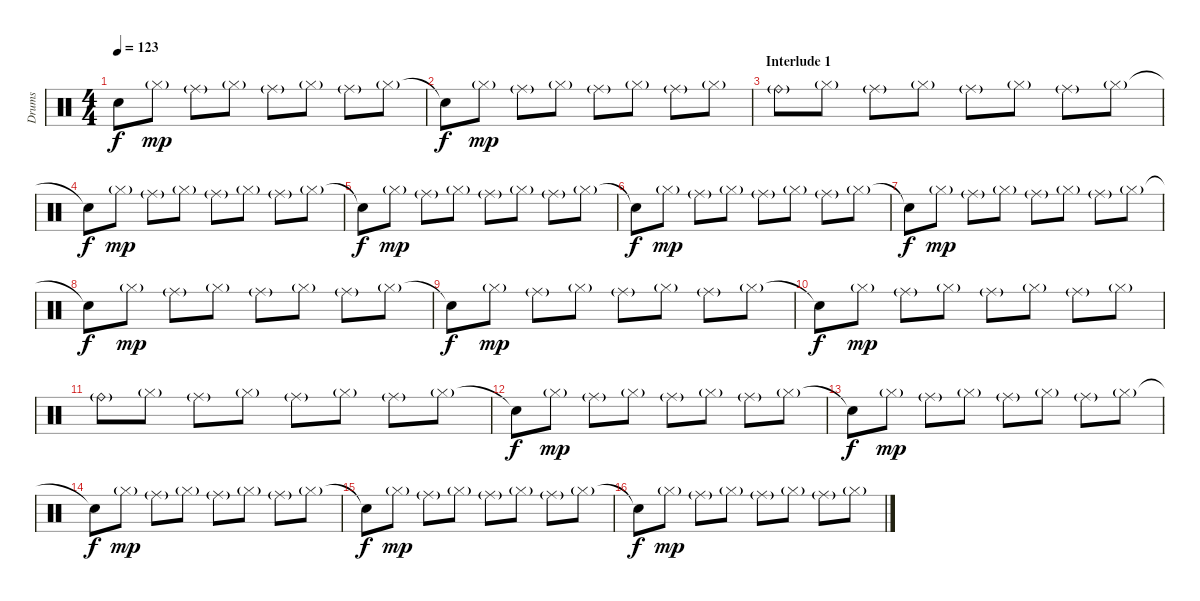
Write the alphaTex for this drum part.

\track ("Drums" "Drums") {instrument percussion}
\staff {score}
\articulation defaults
\ts (4 4)
\tempo 123
\clef neutral
\ks c "Snare (hit)"{t}.8{dy f} "Hi-Hat (closed)"{g}.8{dy mp} "Ride (middle)"{g}.8 "Hi-Hat (closed)"{g}.8 "Ride (middle)"{g}.8 "Hi-Hat (closed)"{g}.8 "Ride (middle)"{g}.8 "Hi-Hat (closed)"{g}.8
|
"Snare (hit)"{t}.8{dy f} "Hi-Hat (closed)"{g}.8{dy mp} "Ride (middle)"{g}.8 "Hi-Hat (closed)"{g}.8 "Ride (middle)"{g}.8 "Hi-Hat (closed)"{g}.8 "Ride (middle)"{g}.8 "Hi-Hat (closed)"{g}.8 |
\section ("" "Interlude 1")
"Ride (bell)"{g}.8 "Hi-Hat (closed)"{g}.8 "Ride (middle)"{g}.8 "Hi-Hat (closed)"{g}.8 "Ride (middle)"{g}.8 "Hi-Hat (closed)"{g}.8 "Ride (middle)"{g}.8 "Hi-Hat (closed)"{g}.8 |
"Snare (hit)"{t}.8{dy f} "Hi-Hat (closed)"{g}.8{dy mp} "Ride (middle)"{g}.8 "Hi-Hat (closed)"{g}.8 "Ride (middle)"{g}.8 "Hi-Hat (closed)"{g}.8 "Ride (middle)"{g}.8 "Hi-Hat (closed)"{g}.8 |
"Snare (hit)"{t}.8{dy f} "Hi-Hat (closed)"{g}.8{dy mp} "Ride (middle)"{g}.8 "Hi-Hat (closed)"{g}.8 "Ride (middle)"{g}.8 "Hi-Hat (closed)"{g}.8 "Ride (middle)"{g}.8 "Hi-Hat (closed)"{g}.8 |
"Snare (hit)"{t}.8{dy f} "Hi-Hat (closed)"{g}.8{dy mp} "Ride (middle)"{g}.8 "Hi-Hat (closed)"{g}.8 "Ride (middle)"{g}.8 "Hi-Hat (closed)"{g}.8 "Ride (middle)"{g}.8 "Hi-Hat (closed)"{g}.8 |
"Snare (hit)"{t}.8{dy f} "Hi-Hat (closed)"{g}.8{dy mp} "Ride (middle)"{g}.8 "Hi-Hat (closed)"{g}.8 "Ride (middle)"{g}.8 "Hi-Hat (closed)"{g}.8 "Ride (middle)"{g}.8 "Hi-Hat (closed)"{g}.8 |
"Snare (hit)"{t}.8{dy f} "Hi-Hat (closed)"{g}.8{dy mp} "Ride (middle)"{g}.8 "Hi-Hat (closed)"{g}.8 "Ride (middle)"{g}.8 "Hi-Hat (closed)"{g}.8 "Ride (middle)"{g}.8 "Hi-Hat (closed)"{g}.8 |
"Snare (hit)"{t}.8{dy f} "Hi-Hat (closed)"{g}.8{dy mp} "Ride (middle)"{g}.8 "Hi-Hat (closed)"{g}.8 "Ride (middle)"{g}.8 "Hi-Hat (closed)"{g}.8 "Ride (middle)"{g}.8 "Hi-Hat (closed)"{g}.8 |
"Snare (hit)"{t}.8{dy f} "Hi-Hat (closed)"{g}.8{dy mp} "Ride (middle)"{g}.8 "Hi-Hat (closed)"{g}.8 "Ride (middle)"{g}.8 "Hi-Hat (closed)"{g}.8 "Ride (middle)"{g}.8 "Hi-Hat (closed)"{g}.8 |
"Ride (bell)"{g}.8 "Hi-Hat (closed)"{g}.8 "Ride (middle)"{g}.8 "Hi-Hat (closed)"{g}.8 "Ride (middle)"{g}.8 "Hi-Hat (closed)"{g}.8 "Ride (middle)"{g}.8 "Hi-Hat (closed)"{g}.8 |
"Snare (hit)"{t}.8{dy f} "Hi-Hat (closed)"{g}.8{dy mp} "Ride (middle)"{g}.8 "Hi-Hat (closed)"{g}.8 "Ride (middle)"{g}.8 "Hi-Hat (closed)"{g}.8 "Ride (middle)"{g}.8 "Hi-Hat (closed)"{g}.8 |
"Snare (hit)"{t}.8{dy f} "Hi-Hat (closed)"{g}.8{dy mp} "Ride (middle)"{g}.8 "Hi-Hat (closed)"{g}.8 "Ride (middle)"{g}.8 "Hi-Hat (closed)"{g}.8 "Ride (middle)"{g}.8 "Hi-Hat (closed)"{g}.8 |
"Snare (hit)"{t}.8{dy f} "Hi-Hat (closed)"{g}.8{dy mp} "Ride (middle)"{g}.8 "Hi-Hat (closed)"{g}.8 "Ride (middle)"{g}.8 "Hi-Hat (closed)"{g}.8 "Ride (middle)"{g}.8 "Hi-Hat (closed)"{g}.8 |
"Snare (hit)"{t}.8{dy f} "Hi-Hat (closed)"{g}.8{dy mp} "Ride (middle)"{g}.8 "Hi-Hat (closed)"{g}.8 "Ride (middle)"{g}.8 "Hi-Hat (closed)"{g}.8 "Ride (middle)"{g}.8 "Hi-Hat (closed)"{g}.8 |
"Snare (hit)"{t}.8{dy f} "Hi-Hat (closed)"{g}.8{dy mp} "Ride (middle)"{g}.8 "Hi-Hat (closed)"{g}.8 "Ride (middle)"{g}.8 "Hi-Hat (closed)"{g}.8 "Ride (middle)"{g}.8 "Hi-Hat (closed)"{g}.8
